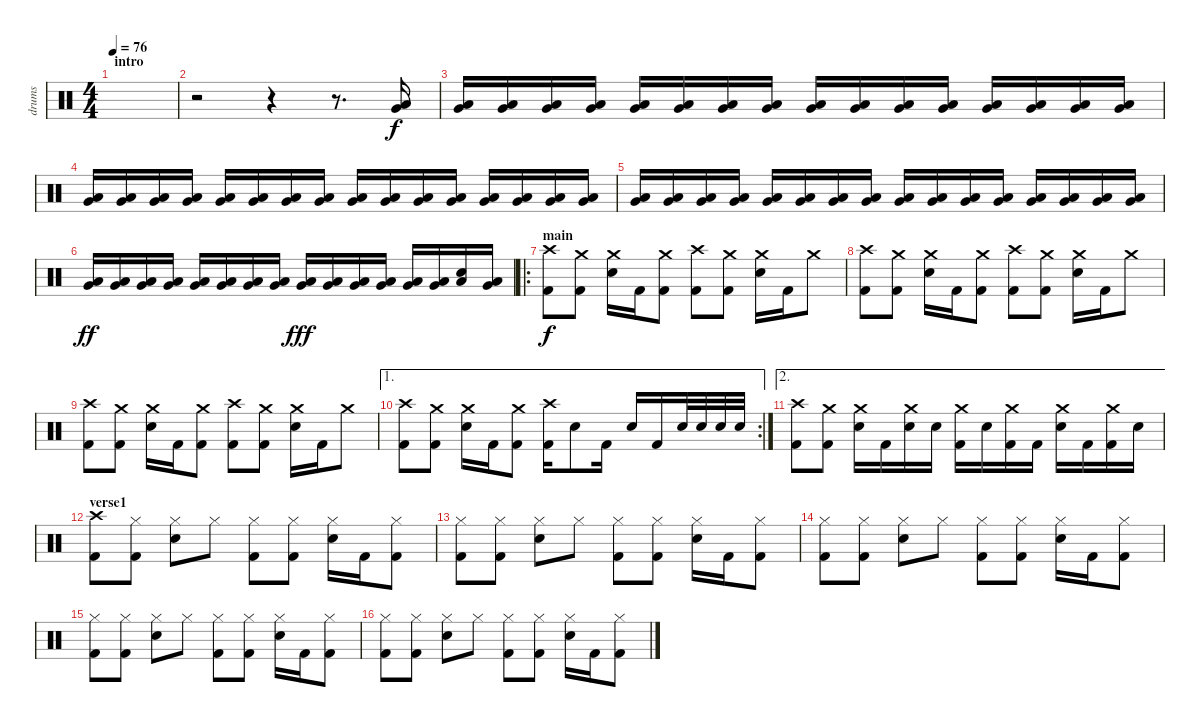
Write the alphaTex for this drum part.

\track ("drums" "drums") {instrument percussion}
\staff {score}
\articulation defaults
\ts (4 4)
\section ("" "intro")
\tempo 76
\clef neutral
\ks c
|
r.2 r.4 r.8{d} ("Low Floor Tom (hit)" "Very Low Tom (hit)").16 |
("Low Floor Tom (hit)" "Very Low Tom (hit)").16 ("Low Floor Tom (hit)" "Very Low Tom (hit)").16 ("Low Floor Tom (hit)" "Very Low Tom (hit)").16 ("Low Floor Tom (hit)" "Very Low Tom (hit)").16 ("Low Floor Tom (hit)" "Very Low Tom (hit)").16 ("Low Floor Tom (hit)" "Very Low Tom (hit)").16 ("Low Floor Tom (hit)" "Very Low Tom (hit)").16 ("Low Floor Tom (hit)" "Very Low Tom (hit)").16 ("Low Floor Tom (hit)" "Very Low Tom (hit)").16 ("Low Floor Tom (hit)" "Very Low Tom (hit)").16 ("Low Floor Tom (hit)" "Very Low Tom (hit)").16 ("Low Floor Tom (hit)" "Very Low Tom (hit)").16 ("Low Floor Tom (hit)" "Very Low Tom (hit)").16 ("Low Floor Tom (hit)" "Very Low Tom (hit)").16 ("Low Floor Tom (hit)" "Very Low Tom (hit)").16 ("Low Floor Tom (hit)" "Very Low Tom (hit)").16 |
("Low Floor Tom (hit)" "Very Low Tom (hit)").16 ("Low Floor Tom (hit)" "Very Low Tom (hit)").16 ("Low Floor Tom (hit)" "Very Low Tom (hit)").16 ("Low Floor Tom (hit)" "Very Low Tom (hit)").16 ("Low Floor Tom (hit)" "Very Low Tom (hit)").16 ("Low Floor Tom (hit)" "Very Low Tom (hit)").16 ("Low Floor Tom (hit)" "Very Low Tom (hit)").16 ("Low Floor Tom (hit)" "Very Low Tom (hit)").16 ("Low Floor Tom (hit)" "Very Low Tom (hit)").16 ("Low Floor Tom (hit)" "Very Low Tom (hit)").16 ("Low Floor Tom (hit)" "Very Low Tom (hit)").16 ("Low Floor Tom (hit)" "Very Low Tom (hit)").16 ("Low Floor Tom (hit)" "Very Low Tom (hit)").16 ("Low Floor Tom (hit)" "Very Low Tom (hit)").16 ("Low Floor Tom (hit)" "Very Low Tom (hit)").16 ("Low Floor Tom (hit)" "Very Low Tom (hit)").16 |
("Low Floor Tom (hit)" "Very Low Tom (hit)").16 ("Low Floor Tom (hit)" "Very Low Tom (hit)").16 ("Low Floor Tom (hit)" "Very Low Tom (hit)").16 ("Low Floor Tom (hit)" "Very Low Tom (hit)").16 ("Low Floor Tom (hit)" "Very Low Tom (hit)").16 ("Low Floor Tom (hit)" "Very Low Tom (hit)").16 ("Low Floor Tom (hit)" "Very Low Tom (hit)").16 ("Low Floor Tom (hit)" "Very Low Tom (hit)").16 ("Low Floor Tom (hit)" "Very Low Tom (hit)").16 ("Low Floor Tom (hit)" "Very Low Tom (hit)").16 ("Low Floor Tom (hit)" "Very Low Tom (hit)").16 ("Low Floor Tom (hit)" "Very Low Tom (hit)").16 ("Low Floor Tom (hit)" "Very Low Tom (hit)").16 ("Low Floor Tom (hit)" "Very Low Tom (hit)").16 ("Low Floor Tom (hit)" "Very Low Tom (hit)").16 ("Low Floor Tom (hit)" "Very Low Tom (hit)").16 |
("Low Floor Tom (hit)" "Very Low Tom (hit)").16{dy ff} ("Low Floor Tom (hit)" "Very Low Tom (hit)").16 ("Low Floor Tom (hit)" "Very Low Tom (hit)").16 ("Low Floor Tom (hit)" "Very Low Tom (hit)").16 ("Low Floor Tom (hit)" "Very Low Tom (hit)").16 ("Low Floor Tom (hit)" "Very Low Tom (hit)").16 ("Low Floor Tom (hit)" "Very Low Tom (hit)").16 ("Low Floor Tom (hit)" "Very Low Tom (hit)").16 ("Low Floor Tom (hit)" "Very Low Tom (hit)").16{dy fff} ("Low Floor Tom (hit)" "Very Low Tom (hit)").16 ("Low Floor Tom (hit)" "Very Low Tom (hit)").16 ("Low Floor Tom (hit)" "Very Low Tom (hit)").16 ("Low Floor Tom (hit)" "Very Low Tom (hit)").16 ("Low Floor Tom (hit)" "Very Low Tom (hit)").16 ("Low Floor Tom (hit)" "Electric Snare (hit)").16 ("Low Floor Tom (hit)" "Very Low Tom (hit)").16 |
\ro
\section ("" "main")
("Crash high (hit)" "Kick (hit) 2").8{dy f} ("Crash medium (hit)" "Kick (hit) 2").8 ("Crash medium (hit)" "Electric Snare (hit)").16 "Kick (hit) 2".16 ("Crash medium (hit)" "Kick (hit) 2").8 ("Crash high (hit)" "Kick (hit) 2").8 ("Crash medium (hit)" "Kick (hit) 2").8 ("Crash medium (hit)" "Electric Snare (hit)").16 "Kick (hit) 2".16 "Crash medium (hit)".8 |
("Crash high (hit)" "Kick (hit) 2").8 ("Crash medium (hit)" "Kick (hit) 2").8 ("Crash medium (hit)" "Electric Snare (hit)").16 "Kick (hit) 2".16 ("Crash medium (hit)" "Kick (hit) 2").8 ("Crash high (hit)" "Kick (hit) 2").8 ("Crash medium (hit)" "Kick (hit) 2").8 ("Crash medium (hit)" "Electric Snare (hit)").16 "Kick (hit) 2".16 "Crash medium (hit)".8 |
("Crash high (hit)" "Kick (hit) 2").8 ("Crash medium (hit)" "Kick (hit) 2").8 ("Crash medium (hit)" "Electric Snare (hit)").16 "Kick (hit) 2".16 ("Crash medium (hit)" "Kick (hit) 2").8 ("Crash high (hit)" "Kick (hit) 2").8 ("Crash medium (hit)" "Kick (hit) 2").8 ("Crash medium (hit)" "Electric Snare (hit)").16 "Kick (hit) 2".16 "Crash medium (hit)".8 |
\ae 1
\rc 2
("Crash high (hit)" "Kick (hit) 2").8 ("Crash medium (hit)" "Kick (hit) 2").8 ("Crash medium (hit)" "Electric Snare (hit)").16 "Kick (hit) 2".16 ("Crash medium (hit)" "Kick (hit) 2").8 ("Crash high (hit)" "Kick (hit) 2").16 "Electric Snare (hit)".8 "Kick (hit) 2".16 "Electric Snare (hit)".16 "Kick (hit) 2".16 "Electric Snare (hit)".32 "Electric Snare (hit)".32 "Electric Snare (hit)".32 "Electric Snare (hit)".32 |
\ae 2
("Crash high (hit)" "Kick (hit) 2").8 ("Crash medium (hit)" "Kick (hit) 2").8 ("Crash medium (hit)" "Electric Snare (hit)").16 "Kick (hit) 2".16 ("Crash medium (hit)" "Electric Snare (hit)").16 "Electric Snare (hit)".16 ("Crash medium (hit)" "Kick (hit) 2").16 "Electric Snare (hit)".16 ("Crash medium (hit)" "Kick (hit) 2").16 "Kick (hit) 2".16 ("Crash medium (hit)" "Electric Snare (hit)").16 "Kick (hit) 2".16 ("Crash medium (hit)" "Kick (hit) 2").16 "Electric Snare (hit)".16 |
\section ("" "verse1")
("Crash high (hit)" "Kick (hit) 2").8 ("Hi-Hat (closed)" "Kick (hit) 2").8 ("Hi-Hat (closed)" "Electric Snare (hit)").8 "Hi-Hat (closed)".8 ("Hi-Hat (closed)" "Kick (hit) 2").8 ("Hi-Hat (closed)" "Kick (hit) 2").8 ("Hi-Hat (closed)" "Electric Snare (hit)").16 "Kick (hit) 2".16 ("Hi-Hat (closed)" "Kick (hit) 2").8 |
("Hi-Hat (closed)" "Kick (hit) 2").8 ("Hi-Hat (closed)" "Kick (hit) 2").8 ("Hi-Hat (closed)" "Electric Snare (hit)").8 "Hi-Hat (closed)".8 ("Hi-Hat (closed)" "Kick (hit) 2").8 ("Hi-Hat (closed)" "Kick (hit) 2").8 ("Hi-Hat (closed)" "Electric Snare (hit)").16 "Kick (hit) 2".16 ("Hi-Hat (closed)" "Kick (hit) 2").8 |
("Hi-Hat (closed)" "Kick (hit) 2").8 ("Hi-Hat (closed)" "Kick (hit) 2").8 ("Hi-Hat (closed)" "Electric Snare (hit)").8 "Hi-Hat (closed)".8 ("Hi-Hat (closed)" "Kick (hit) 2").8 ("Hi-Hat (closed)" "Kick (hit) 2").8 ("Hi-Hat (closed)" "Electric Snare (hit)").16 "Kick (hit) 2".16 ("Hi-Hat (closed)" "Kick (hit) 2").8 |
("Hi-Hat (closed)" "Kick (hit) 2").8 ("Hi-Hat (closed)" "Kick (hit) 2").8 ("Hi-Hat (closed)" "Electric Snare (hit)").8 "Hi-Hat (closed)".8 ("Hi-Hat (closed)" "Kick (hit) 2").8 ("Hi-Hat (closed)" "Kick (hit) 2").8 ("Hi-Hat (closed)" "Electric Snare (hit)").16 "Kick (hit) 2".16 ("Hi-Hat (closed)" "Kick (hit) 2").8 |
("Hi-Hat (closed)" "Kick (hit) 2").8 ("Hi-Hat (closed)" "Kick (hit) 2").8 ("Hi-Hat (closed)" "Electric Snare (hit)").8 "Hi-Hat (closed)".8 ("Hi-Hat (closed)" "Kick (hit) 2").8 ("Hi-Hat (closed)" "Kick (hit) 2").8 ("Hi-Hat (closed)" "Electric Snare (hit)").16 "Kick (hit) 2".16 ("Hi-Hat (closed)" "Kick (hit) 2").8
